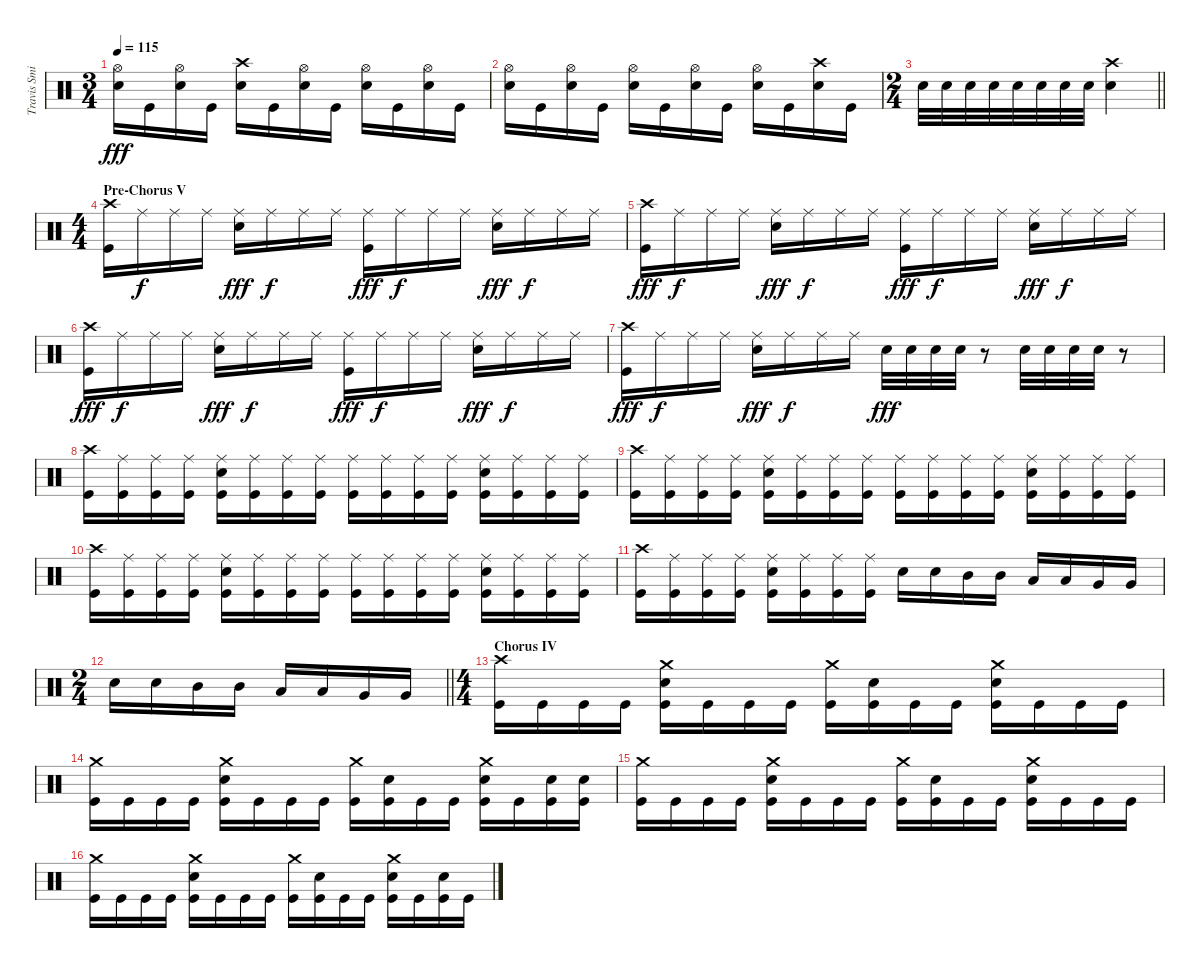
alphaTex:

\track ("Travis Smith" "Travis Smi") {instrument percussion}
\staff {score}
\articulation defaults
\ts (3 4)
\tempo 115
\clef neutral
\ks c
("Hi-Hat (open)" "Snare (hit) 2").16{dy fff} "Kick (hit)".16 ("Hi-Hat (open)" "Snare (hit) 2").16 "Kick (hit)".16 ("Crash high (hit)" "Snare (hit) 2").16 "Kick (hit)".16 ("Hi-Hat (open)" "Snare (hit) 2").16 "Kick (hit)".16 ("Hi-Hat (open)" "Snare (hit) 2").16 "Kick (hit)".16 ("Hi-Hat (open)" "Snare (hit) 2").16 "Kick (hit)".16 |
("Hi-Hat (open)" "Snare (hit) 2").16 "Kick (hit)".16 ("Hi-Hat (open)" "Snare (hit) 2").16 "Kick (hit)".16 ("Hi-Hat (open)" "Snare (hit) 2").16 "Kick (hit)".16 ("Hi-Hat (open)" "Snare (hit) 2").16 "Kick (hit)".16 ("Hi-Hat (open)" "Snare (hit) 2").16 "Kick (hit)".16 ("Crash high (hit)" "Snare (hit) 2").16 "Kick (hit)".16 |
\ts (2 4)
\barLineRight lightlight "Snare (hit) 2".32 "Snare (hit) 2".32 "Snare (hit) 2".32 "Snare (hit) 2".32 "Snare (hit) 2".32 "Snare (hit) 2".32 "Snare (hit) 2".32 "Snare (hit) 2".32
("Crash high (hit)" "Snare (hit) 2").4 |
\ts (4 4)
\section ("" "Pre-Chorus V")
("Crash high (hit)" "Kick (hit)").16 "Ride (middle)".16{dy f} "Ride (middle)".16 "Ride (middle)".16 ("Ride (middle)" "Snare (hit) 2").16{dy fff} "Ride (middle)".16{dy f} "Ride (middle)".16 "Ride (middle)".16 ("Ride (middle)" "Kick (hit)").16{dy fff} "Ride (middle)".16{dy f} "Ride (middle)".16 "Ride (middle)".16 ("Ride (middle)" "Snare (hit) 2").16{dy fff} "Ride (middle)".16{dy f} "Ride (middle)".16 "Ride (middle)".16 |
("Crash high (hit)" "Kick (hit)").16{dy fff} "Ride (middle)".16{dy f} "Ride (middle)".16 "Ride (middle)".16 ("Ride (middle)" "Snare (hit) 2").16{dy fff} "Ride (middle)".16{dy f} "Ride (middle)".16 "Ride (middle)".16 ("Ride (middle)" "Kick (hit)").16{dy fff} "Ride (middle)".16{dy f} "Ride (middle)".16 "Ride (middle)".16 ("Ride (middle)" "Snare (hit) 2").16{dy fff} "Ride (middle)".16{dy f} "Ride (middle)".16 "Ride (middle)".16 |
("Crash high (hit)" "Kick (hit)").16{dy fff} "Ride (middle)".16{dy f} "Ride (middle)".16 "Ride (middle)".16 ("Ride (middle)" "Snare (hit) 2").16{dy fff} "Ride (middle)".16{dy f} "Ride (middle)".16 "Ride (middle)".16 ("Ride (middle)" "Kick (hit)").16{dy fff} "Ride (middle)".16{dy f} "Ride (middle)".16 "Ride (middle)".16 ("Ride (middle)" "Snare (hit) 2").16{dy fff} "Ride (middle)".16{dy f} "Ride (middle)".16 "Ride (middle)".16 |
("Crash high (hit)" "Kick (hit)").16{dy fff} "Ride (middle)".16{dy f} "Ride (middle)".16 "Ride (middle)".16 ("Ride (middle)" "Snare (hit) 2").16{dy fff} "Ride (middle)".16{dy f} "Ride (middle)".16 "Ride (middle)".16 "Snare (hit) 2".32{dy fff} "Snare (hit) 2".32 "Snare (hit) 2".32 "Snare (hit) 2".32 r.8 "Snare (hit) 2".32 "Snare (hit) 2".32 "Snare (hit) 2".32 "Snare (hit) 2".32 r.8 |
("Crash high (hit)" "Kick (hit)").16 ("Ride (middle)" "Kick (hit)").16 ("Ride (middle)" "Kick (hit)").16 ("Ride (middle)" "Kick (hit)").16 ("Ride (middle)" "Snare (hit) 2" "Kick (hit)").16 ("Ride (middle)" "Kick (hit)").16 ("Ride (middle)" "Kick (hit)").16 ("Ride (middle)" "Kick (hit)").16 ("Ride (middle)" "Kick (hit)").16 ("Ride (middle)" "Kick (hit)").16 ("Ride (middle)" "Kick (hit)").16 ("Ride (middle)" "Kick (hit)").16 ("Ride (middle)" "Snare (hit) 2" "Kick (hit)").16 ("Ride (middle)" "Kick (hit)").16 ("Ride (middle)" "Kick (hit)").16 ("Ride (middle)" "Kick (hit)").16 |
("Crash high (hit)" "Kick (hit)").16 ("Ride (middle)" "Kick (hit)").16 ("Ride (middle)" "Kick (hit)").16 ("Ride (middle)" "Kick (hit)").16 ("Ride (middle)" "Snare (hit) 2" "Kick (hit)").16 ("Ride (middle)" "Kick (hit)").16 ("Ride (middle)" "Kick (hit)").16 ("Ride (middle)" "Kick (hit)").16 ("Ride (middle)" "Kick (hit)").16 ("Ride (middle)" "Kick (hit)").16 ("Ride (middle)" "Kick (hit)").16 ("Ride (middle)" "Kick (hit)").16 ("Ride (middle)" "Snare (hit) 2" "Kick (hit)").16 ("Ride (middle)" "Kick (hit)").16 ("Ride (middle)" "Kick (hit)").16 ("Ride (middle)" "Kick (hit)").16 |
("Crash high (hit)" "Kick (hit)").16 ("Ride (middle)" "Kick (hit)").16 ("Ride (middle)" "Kick (hit)").16 ("Ride (middle)" "Kick (hit)").16 ("Ride (middle)" "Snare (hit) 2" "Kick (hit)").16 ("Ride (middle)" "Kick (hit)").16 ("Ride (middle)" "Kick (hit)").16 ("Ride (middle)" "Kick (hit)").16 ("Ride (middle)" "Kick (hit)").16 ("Ride (middle)" "Kick (hit)").16 ("Ride (middle)" "Kick (hit)").16 ("Ride (middle)" "Kick (hit)").16 ("Ride (middle)" "Snare (hit) 2" "Kick (hit)").16 ("Ride (middle)" "Kick (hit)").16 ("Ride (middle)" "Kick (hit)").16 ("Ride (middle)" "Kick (hit)").16 |
("Crash high (hit)" "Kick (hit)").16 ("Ride (middle)" "Kick (hit)").16 ("Ride (middle)" "Kick (hit)").16 ("Ride (middle)" "Kick (hit)").16 ("Ride (middle)" "Snare (hit) 2" "Kick (hit)").16 ("Ride (middle)" "Kick (hit)").16 ("Ride (middle)" "Kick (hit)").16 ("Ride (middle)" "Kick (hit)").16 "Snare (hit) 2".16 "Snare (hit) 2".16 "Mid Tom (hit)".16 "Mid Tom (hit)".16 "Low Tom (hit)".16 "Low Tom (hit)".16 "Very Low Tom (hit)".16 "Very Low Tom (hit)".16 |
\ts (2 4)
\barLineRight lightlight "Snare (hit) 2".16 "Snare (hit) 2".16 "Mid Tom (hit)".16 "Mid Tom (hit)".16 "Low Tom (hit)".16 "Low Tom (hit)".16 "Very Low Tom (hit)".16 "Very Low Tom (hit)".16
|
\ts (4 4)
\section ("" "Chorus IV")
("Crash high (hit)" "Kick (hit)").16 "Kick (hit)".16 "Kick (hit)".16 "Kick (hit)".16 ("Crash medium (hit)" "Snare (hit) 2" "Kick (hit)").16 "Kick (hit)".16 "Kick (hit)".16 "Kick (hit)".16 ("Crash medium (hit)" "Kick (hit)").16 ("Snare (hit) 2" "Kick (hit)").16 "Kick (hit)".16 "Kick (hit)".16 ("Crash medium (hit)" "Snare (hit) 2" "Kick (hit)").16 "Kick (hit)".16 "Kick (hit)".16 "Kick (hit)".16 |
("Crash medium (hit)" "Kick (hit)").16 "Kick (hit)".16 "Kick (hit)".16 "Kick (hit)".16 ("Crash medium (hit)" "Snare (hit) 2" "Kick (hit)").16 "Kick (hit)".16 "Kick (hit)".16 "Kick (hit)".16 ("Crash medium (hit)" "Kick (hit)").16 ("Snare (hit) 2" "Kick (hit)").16 "Kick (hit)".16 "Kick (hit)".16 ("Crash medium (hit)" "Snare (hit) 2" "Kick (hit)").16 "Kick (hit)".16 ("Snare (hit) 2" "Kick (hit)").16 ("Snare (hit) 2" "Kick (hit)").16 |
("Crash medium (hit)" "Kick (hit)").16 "Kick (hit)".16 "Kick (hit)".16 "Kick (hit)".16 ("Crash medium (hit)" "Snare (hit) 2" "Kick (hit)").16 "Kick (hit)".16 "Kick (hit)".16 "Kick (hit)".16 ("Crash medium (hit)" "Kick (hit)").16 ("Snare (hit) 2" "Kick (hit)").16 "Kick (hit)".16 "Kick (hit)".16 ("Crash medium (hit)" "Snare (hit) 2" "Kick (hit)").16 "Kick (hit)".16 "Kick (hit)".16 "Kick (hit)".16 |
("Crash medium (hit)" "Kick (hit)").16 "Kick (hit)".16 "Kick (hit)".16 "Kick (hit)".16 ("Crash medium (hit)" "Snare (hit) 2" "Kick (hit)").16 "Kick (hit)".16 "Kick (hit)".16 "Kick (hit)".16 ("Crash medium (hit)" "Kick (hit)").16 ("Snare (hit) 2" "Kick (hit)").16 "Kick (hit)".16 "Kick (hit)".16 ("Crash medium (hit)" "Snare (hit) 2" "Kick (hit)").16 "Kick (hit)".16 ("Snare (hit) 2" "Kick (hit)").16 "Kick (hit)".16
